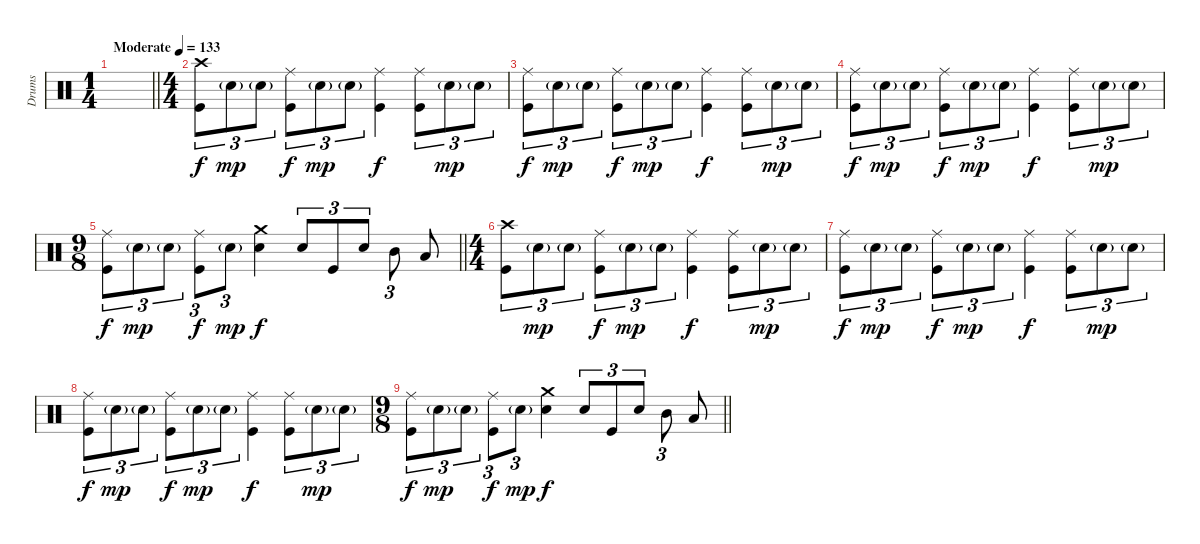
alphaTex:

\track ("Drums" "Drums") {instrument percussion}
\staff
\articulation defaults
\ts (1 4)
\tempo (133 "Moderate")
\clef neutral
\barLineRight lightlight
\ks c
|
\ts (4 4)
("Crash high (hit)" "Kick (hit)").8{tu (3 2)} "Electric Snare (hit)"{g}.8{tu (3 2) dy mp} "Electric Snare (hit)"{g}.8{tu (3 2)} ("Ride (middle)" "Kick (hit)").8{tu (3 2) dy f} "Electric Snare (hit)"{g}.8{tu (3 2) dy mp} "Electric Snare (hit)"{g}.8{tu (3 2)} ("Ride (middle)" "Kick (hit)").4{dy f} ("Ride (middle)" "Kick (hit)").8{tu (3 2)} "Electric Snare (hit)"{g}.8{tu (3 2) dy mp} "Electric Snare (hit)"{g}.8{tu (3 2)} |
("Ride (middle)" "Kick (hit)").8{tu (3 2) dy f} "Electric Snare (hit)"{g}.8{tu (3 2) dy mp} "Electric Snare (hit)"{g}.8{tu (3 2)} ("Ride (middle)" "Kick (hit)").8{tu (3 2) dy f} "Electric Snare (hit)"{g}.8{tu (3 2) dy mp} "Electric Snare (hit)"{g}.8{tu (3 2)} ("Ride (middle)" "Kick (hit)").4{dy f} ("Ride (middle)" "Kick (hit)").8{tu (3 2)} "Electric Snare (hit)"{g}.8{tu (3 2) dy mp} "Electric Snare (hit)"{g}.8{tu (3 2)} |
("Ride (middle)" "Kick (hit)").8{tu (3 2) dy f} "Electric Snare (hit)"{g}.8{tu (3 2) dy mp} "Electric Snare (hit)"{g}.8{tu (3 2)} ("Ride (middle)" "Kick (hit)").8{tu (3 2) dy f} "Electric Snare (hit)"{g}.8{tu (3 2) dy mp} "Electric Snare (hit)"{g}.8{tu (3 2)} ("Ride (middle)" "Kick (hit)").4{dy f} ("Ride (middle)" "Kick (hit)").8{tu (3 2)} "Electric Snare (hit)"{g}.8{tu (3 2) dy mp} "Electric Snare (hit)"{g}.8{tu (3 2)} |
\ts (9 8)
\barLineRight lightlight
("Ride (middle)" "Kick (hit)").8{tu (3 2) dy f} "Electric Snare (hit)"{g}.8{tu (3 2) dy mp} "Electric Snare (hit)"{g}.8{tu (3 2)} ("Ride (middle)" "Kick (hit)").8{tu (3 2) dy f} "Electric Snare (hit)"{g}.8{tu (3 2) dy mp} ("Crash medium (hit)" "Electric Snare (hit)").4{dy f} "Electric Snare (hit)".8{tu (3 2)} "Kick (hit)".8{tu (3 2)} "Electric Snare (hit)".8{tu (3 2)} "Mid Tom (hit)".8{tu (3 2)} "Low Tom (hit)".8 |
\ts (4 4)
("Crash high (hit)" "Kick (hit)").8{tu (3 2)} "Electric Snare (hit)"{g}.8{tu (3 2) dy mp} "Electric Snare (hit)"{g}.8{tu (3 2)} ("Ride (middle)" "Kick (hit)").8{tu (3 2) dy f} "Electric Snare (hit)"{g}.8{tu (3 2) dy mp} "Electric Snare (hit)"{g}.8{tu (3 2)} ("Ride (middle)" "Kick (hit)").4{dy f} ("Ride (middle)" "Kick (hit)").8{tu (3 2)} "Electric Snare (hit)"{g}.8{tu (3 2) dy mp} "Electric Snare (hit)"{g}.8{tu (3 2)} |
("Ride (middle)" "Kick (hit)").8{tu (3 2) dy f} "Electric Snare (hit)"{g}.8{tu (3 2) dy mp} "Electric Snare (hit)"{g}.8{tu (3 2)} ("Ride (middle)" "Kick (hit)").8{tu (3 2) dy f} "Electric Snare (hit)"{g}.8{tu (3 2) dy mp} "Electric Snare (hit)"{g}.8{tu (3 2)} ("Ride (middle)" "Kick (hit)").4{dy f} ("Ride (middle)" "Kick (hit)").8{tu (3 2)} "Electric Snare (hit)"{g}.8{tu (3 2) dy mp} "Electric Snare (hit)"{g}.8{tu (3 2)} |
("Ride (middle)" "Kick (hit)").8{tu (3 2) dy f} "Electric Snare (hit)"{g}.8{tu (3 2) dy mp} "Electric Snare (hit)"{g}.8{tu (3 2)} ("Ride (middle)" "Kick (hit)").8{tu (3 2) dy f} "Electric Snare (hit)"{g}.8{tu (3 2) dy mp} "Electric Snare (hit)"{g}.8{tu (3 2)} ("Ride (middle)" "Kick (hit)").4{dy f} ("Ride (middle)" "Kick (hit)").8{tu (3 2)} "Electric Snare (hit)"{g}.8{tu (3 2) dy mp} "Electric Snare (hit)"{g}.8{tu (3 2)} |
\ts (9 8)
\barLineRight lightlight
("Ride (middle)" "Kick (hit)").8{tu (3 2) dy f} "Electric Snare (hit)"{g}.8{tu (3 2) dy mp} "Electric Snare (hit)"{g}.8{tu (3 2)} ("Ride (middle)" "Kick (hit)").8{tu (3 2) dy f} "Electric Snare (hit)"{g}.8{tu (3 2) dy mp} ("Crash medium (hit)" "Electric Snare (hit)").4{dy f} "Electric Snare (hit)".8{tu (3 2)} "Kick (hit)".8{tu (3 2)} "Electric Snare (hit)".8{tu (3 2)} "Mid Tom (hit)".8{tu (3 2)} "Low Tom (hit)".8
